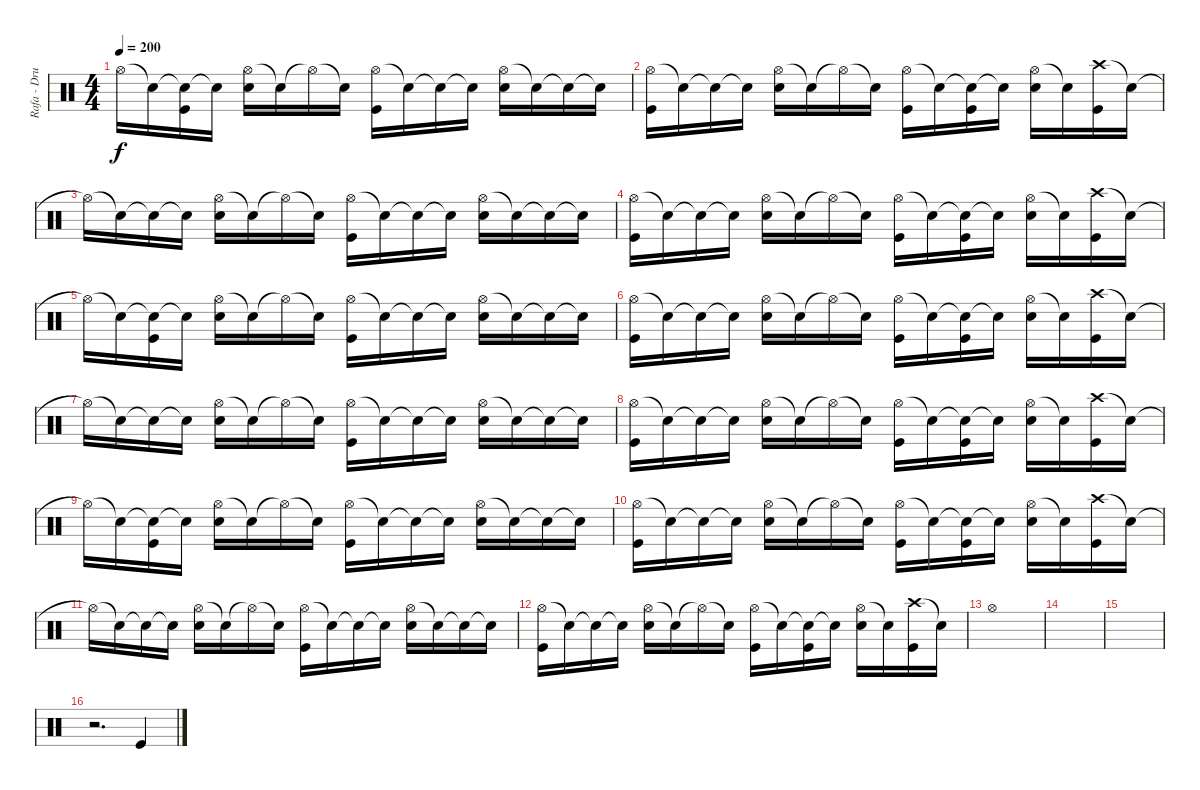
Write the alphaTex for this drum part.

\track ("Rafa - Drums" "Rafa - Dru") {instrument percussion}
\staff {score}
\articulation defaults
\ts (4 4)
\tempo 200
\clef neutral
\ks c "Hi-Hat (open)"{t}.16{dy f} "Snare (hit)"{t}.16
("Snare (hit)"{t} "Kick (hit)").16 "Snare (hit)"{t}.16 ("Hi-Hat (open)" "Electric Snare (hit)").16 "Snare (hit)"{t}.16 "Hi-Hat (open)"{t}.16 "Snare (hit)"{t}.16 ("Hi-Hat (open)" "Kick (hit)").16 "Snare (hit)"{t}.16 "Snare (hit)"{t}.16 "Snare (hit)"{t}.16 ("Hi-Hat (open)" "Electric Snare (hit)").16 "Snare (hit)"{t}.16 "Snare (hit)"{t}.16 "Snare (hit)"{t}.16 |
("Hi-Hat (open)" "Kick (hit)").16 "Snare (hit)"{t}.16 "Snare (hit)"{t}.16 "Snare (hit)"{t}.16 ("Hi-Hat (open)" "Electric Snare (hit)").16 "Snare (hit)"{t}.16 "Hi-Hat (open)"{t}.16 "Snare (hit)"{t}.16 ("Hi-Hat (open)" "Kick (hit)").16 "Snare (hit)"{t}.16 ("Snare (hit)"{t} "Kick (hit)").16 "Snare (hit)"{t}.16 ("Hi-Hat (open)" "Electric Snare (hit)").16 "Snare (hit)"{t}.16 ("Crash high (hit)" "Kick (hit)").16 "Snare (hit)"{t}.16 |
"Hi-Hat (open)"{t}.16 "Snare (hit)"{t}.16 "Snare (hit)"{t}.16 "Snare (hit)"{t}.16 ("Hi-Hat (open)" "Electric Snare (hit)").16 "Snare (hit)"{t}.16 "Hi-Hat (open)"{t}.16 "Snare (hit)"{t}.16 ("Hi-Hat (open)" "Kick (hit)").16 "Snare (hit)"{t}.16 "Snare (hit)"{t}.16 "Snare (hit)"{t}.16 ("Hi-Hat (open)" "Electric Snare (hit)").16 "Snare (hit)"{t}.16 "Snare (hit)"{t}.16 "Snare (hit)"{t}.16 |
("Hi-Hat (open)" "Kick (hit)").16 "Snare (hit)"{t}.16 "Snare (hit)"{t}.16 "Snare (hit)"{t}.16 ("Hi-Hat (open)" "Electric Snare (hit)").16 "Snare (hit)"{t}.16 "Hi-Hat (open)"{t}.16 "Snare (hit)"{t}.16 ("Hi-Hat (open)" "Kick (hit)").16 "Snare (hit)"{t}.16 ("Snare (hit)"{t} "Kick (hit)").16 "Snare (hit)"{t}.16 ("Hi-Hat (open)" "Electric Snare (hit)").16 "Snare (hit)"{t}.16 ("Crash high (hit)" "Kick (hit)").16 "Snare (hit)"{t}.16 |
"Hi-Hat (open)"{t}.16 "Snare (hit)"{t}.16 ("Snare (hit)"{t} "Kick (hit)").16 "Snare (hit)"{t}.16 ("Hi-Hat (open)" "Electric Snare (hit)").16 "Snare (hit)"{t}.16 "Hi-Hat (open)"{t}.16 "Snare (hit)"{t}.16 ("Hi-Hat (open)" "Kick (hit)").16 "Snare (hit)"{t}.16 "Snare (hit)"{t}.16 "Snare (hit)"{t}.16 ("Hi-Hat (open)" "Electric Snare (hit)").16 "Snare (hit)"{t}.16 "Snare (hit)"{t}.16 "Snare (hit)"{t}.16 |
("Hi-Hat (open)" "Kick (hit)").16 "Snare (hit)"{t}.16 "Snare (hit)"{t}.16 "Snare (hit)"{t}.16 ("Hi-Hat (open)" "Electric Snare (hit)").16 "Snare (hit)"{t}.16 "Hi-Hat (open)"{t}.16 "Snare (hit)"{t}.16 ("Hi-Hat (open)" "Kick (hit)").16 "Snare (hit)"{t}.16 ("Snare (hit)"{t} "Kick (hit)").16 "Snare (hit)"{t}.16 ("Hi-Hat (open)" "Electric Snare (hit)").16 "Snare (hit)"{t}.16 ("Crash high (hit)" "Kick (hit)").16 "Snare (hit)"{t}.16 |
"Hi-Hat (open)"{t}.16 "Snare (hit)"{t}.16 "Snare (hit)"{t}.16 "Snare (hit)"{t}.16 ("Hi-Hat (open)" "Electric Snare (hit)").16 "Snare (hit)"{t}.16 "Hi-Hat (open)"{t}.16 "Snare (hit)"{t}.16 ("Hi-Hat (open)" "Kick (hit)").16 "Snare (hit)"{t}.16 "Snare (hit)"{t}.16 "Snare (hit)"{t}.16 ("Hi-Hat (open)" "Electric Snare (hit)").16 "Snare (hit)"{t}.16 "Snare (hit)"{t}.16 "Snare (hit)"{t}.16 |
("Hi-Hat (open)" "Kick (hit)").16 "Snare (hit)"{t}.16 "Snare (hit)"{t}.16 "Snare (hit)"{t}.16 ("Hi-Hat (open)" "Electric Snare (hit)").16 "Snare (hit)"{t}.16 "Hi-Hat (open)"{t}.16 "Snare (hit)"{t}.16 ("Hi-Hat (open)" "Kick (hit)").16 "Snare (hit)"{t}.16 ("Snare (hit)"{t} "Kick (hit)").16 "Snare (hit)"{t}.16 ("Hi-Hat (open)" "Electric Snare (hit)").16 "Snare (hit)"{t}.16 ("Crash high (hit)" "Kick (hit)").16 "Snare (hit)"{t}.16 |
"Hi-Hat (open)"{t}.16 "Snare (hit)"{t}.16 ("Snare (hit)"{t} "Kick (hit)").16 "Snare (hit)"{t}.16 ("Hi-Hat (open)" "Electric Snare (hit)").16 "Snare (hit)"{t}.16 "Hi-Hat (open)"{t}.16 "Snare (hit)"{t}.16 ("Hi-Hat (open)" "Kick (hit)").16 "Snare (hit)"{t}.16 "Snare (hit)"{t}.16 "Snare (hit)"{t}.16 ("Hi-Hat (open)" "Electric Snare (hit)").16 "Snare (hit)"{t}.16 "Snare (hit)"{t}.16 "Snare (hit)"{t}.16 |
("Hi-Hat (open)" "Kick (hit)").16 "Snare (hit)"{t}.16 "Snare (hit)"{t}.16 "Snare (hit)"{t}.16 ("Hi-Hat (open)" "Electric Snare (hit)").16 "Snare (hit)"{t}.16 "Hi-Hat (open)"{t}.16 "Snare (hit)"{t}.16 ("Hi-Hat (open)" "Kick (hit)").16 "Snare (hit)"{t}.16 ("Snare (hit)"{t} "Kick (hit)").16 "Snare (hit)"{t}.16 ("Hi-Hat (open)" "Electric Snare (hit)").16 "Snare (hit)"{t}.16 ("Crash high (hit)" "Kick (hit)").16 "Snare (hit)"{t}.16 |
"Hi-Hat (open)"{t}.16 "Snare (hit)"{t}.16 "Snare (hit)"{t}.16 "Snare (hit)"{t}.16 ("Hi-Hat (open)" "Electric Snare (hit)").16 "Snare (hit)"{t}.16 "Hi-Hat (open)"{t}.16 "Snare (hit)"{t}.16 ("Hi-Hat (open)" "Kick (hit)").16 "Snare (hit)"{t}.16 "Snare (hit)"{t}.16 "Snare (hit)"{t}.16 ("Hi-Hat (open)" "Electric Snare (hit)").16 "Snare (hit)"{t}.16 "Snare (hit)"{t}.16 "Snare (hit)"{t}.16 |
("Hi-Hat (open)" "Kick (hit)").16 "Snare (hit)"{t}.16 "Snare (hit)"{t}.16 "Snare (hit)"{t}.16 ("Hi-Hat (open)" "Electric Snare (hit)").16 "Snare (hit)"{t}.16 "Hi-Hat (open)"{t}.16 "Snare (hit)"{t}.16 ("Hi-Hat (open)" "Kick (hit)").16 "Snare (hit)"{t}.16 ("Snare (hit)"{t} "Kick (hit)").16 "Snare (hit)"{t}.16 ("Hi-Hat (open)" "Electric Snare (hit)").16 "Snare (hit)"{t}.16 ("Crash high (hit)" "Kick (hit)").16 "Snare (hit)"{t}.16 |
"Hi-Hat (open)".1 |
|
|
r.2{d} "Kick (hit)".4
